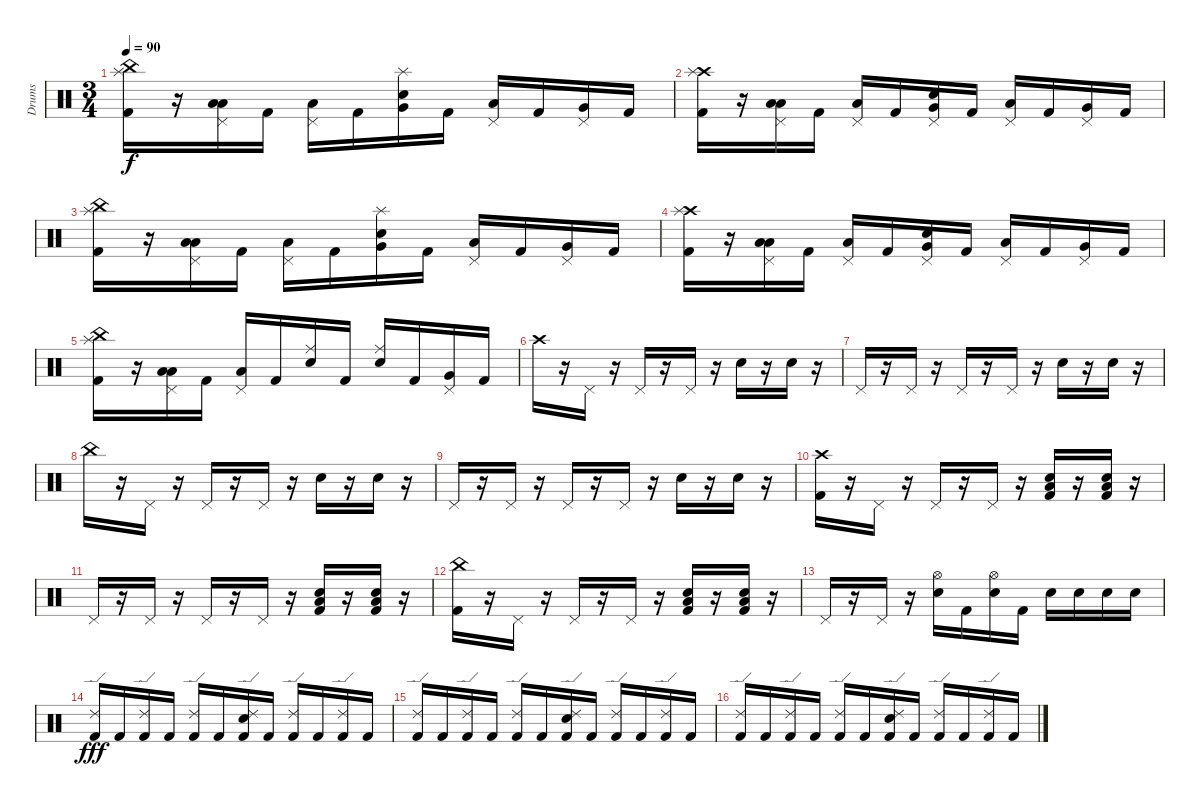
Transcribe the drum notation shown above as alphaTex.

\track ("Drums" "Drums") {instrument percussion}
\staff {score}
\articulation defaults
\ts (3 4)
\tempo 90
\clef neutral
\ks c
("China (hit)" "Splash (hit)" "Kick (hit) 2").16{dy f} r.16 ("Pedal Hi-Hat (hit)" "Low Floor Tom (hit)" "Low Tom (hit)").16 "Kick (hit) 2".16 ("Pedal Hi-Hat (hit)" "Low Floor Tom (hit)").16 "Kick (hit) 2".16 ("Splash (hit)" "Electric Snare (hit)" "Very Low Tom (hit)").16 "Kick (hit) 2".16 ("Pedal Hi-Hat (hit)" "Low Floor Tom (hit)").16 "Kick (hit) 2".16 ("Pedal Hi-Hat (hit)" "Very Low Tom (hit)").16 "Kick (hit) 2".16 |
("Crash high (hit)" "Splash (hit)" "Kick (hit) 2").16 r.16 ("Pedal Hi-Hat (hit)" "Low Floor Tom (hit)" "Low Tom (hit)").16 "Kick (hit) 2".16 ("Pedal Hi-Hat (hit)" "Low Floor Tom (hit)").16 "Kick (hit) 2".16 ("Pedal Hi-Hat (hit)" "Electric Snare (hit)" "Very Low Tom (hit)").16 "Kick (hit) 2".16 ("Pedal Hi-Hat (hit)" "Low Floor Tom (hit)").16 "Kick (hit) 2".16 ("Pedal Hi-Hat (hit)" "Very Low Tom (hit)").16 "Kick (hit) 2".16 |
("China (hit)" "Splash (hit)" "Kick (hit) 2").16 r.16 ("Pedal Hi-Hat (hit)" "Low Floor Tom (hit)" "Low Tom (hit)").16 "Kick (hit) 2".16 ("Pedal Hi-Hat (hit)" "Low Floor Tom (hit)").16 "Kick (hit) 2".16 ("Splash (hit)" "Electric Snare (hit)" "Very Low Tom (hit)").16 "Kick (hit) 2".16 ("Pedal Hi-Hat (hit)" "Low Floor Tom (hit)").16 "Kick (hit) 2".16 ("Pedal Hi-Hat (hit)" "Very Low Tom (hit)").16 "Kick (hit) 2".16 |
("Crash high (hit)" "Splash (hit)" "Kick (hit) 2").16 r.16 ("Pedal Hi-Hat (hit)" "Low Floor Tom (hit)" "Low Tom (hit)").16 "Kick (hit) 2".16 ("Pedal Hi-Hat (hit)" "Low Floor Tom (hit)").16 "Kick (hit) 2".16 ("Pedal Hi-Hat (hit)" "Electric Snare (hit)" "Very Low Tom (hit)").16 "Kick (hit) 2".16 ("Pedal Hi-Hat (hit)" "Low Floor Tom (hit)").16 "Kick (hit) 2".16 ("Pedal Hi-Hat (hit)" "Very Low Tom (hit)").16 "Kick (hit) 2".16 |
("China (hit)" "Splash (hit)" "Kick (hit) 2").16 r.16 ("Pedal Hi-Hat (hit)" "Low Floor Tom (hit)" "Low Tom (hit)").16 "Kick (hit) 2".16 ("Pedal Hi-Hat (hit)" "Low Floor Tom (hit)").16 "Kick (hit) 2".16 ("Ride (middle)" "Electric Snare (hit)").16 "Kick (hit) 2".16 ("Ride (middle)" "Electric Snare (hit)").16 "Kick (hit) 2".16 ("Pedal Hi-Hat (hit)" "Very Low Tom (hit)").16 "Kick (hit) 2".16 |
"Crash high (hit)".16 r.16 "Pedal Hi-Hat (hit)".16 r.16 "Pedal Hi-Hat (hit)".16 r.16 "Pedal Hi-Hat (hit)".16 r.16 "Electric Snare (hit)".16 r.16 "Electric Snare (hit)".16 r.16 |
"Pedal Hi-Hat (hit)".16 r.16 "Pedal Hi-Hat (hit)".16 r.16 "Pedal Hi-Hat (hit)".16 r.16 "Pedal Hi-Hat (hit)".16 r.16 "Electric Snare (hit)".16 r.16 "Electric Snare (hit)".16 r.16 |
"China (hit)".16 r.16 "Pedal Hi-Hat (hit)".16 r.16 "Pedal Hi-Hat (hit)".16 r.16 "Pedal Hi-Hat (hit)".16 r.16 "Electric Snare (hit)".16 r.16 "Electric Snare (hit)".16 r.16 |
"Pedal Hi-Hat (hit)".16 r.16 "Pedal Hi-Hat (hit)".16 r.16 "Pedal Hi-Hat (hit)".16 r.16 "Pedal Hi-Hat (hit)".16 r.16 "Electric Snare (hit)".16 r.16 "Electric Snare (hit)".16 r.16 |
("Crash high (hit)" "Kick (hit) 2").16 r.16 "Pedal Hi-Hat (hit)".16 r.16 "Pedal Hi-Hat (hit)".16 r.16 "Pedal Hi-Hat (hit)".16 r.16 ("Low Floor Tom (hit)" "Electric Snare (hit)" "Kick (hit) 2").16 r.16 ("Low Floor Tom (hit)" "Electric Snare (hit)" "Kick (hit) 2").16 r.16 |
"Pedal Hi-Hat (hit)".16 r.16 "Pedal Hi-Hat (hit)".16 r.16 "Pedal Hi-Hat (hit)".16 r.16 "Pedal Hi-Hat (hit)".16 r.16 ("Low Floor Tom (hit)" "Electric Snare (hit)" "Kick (hit) 2").16 r.16 ("Low Floor Tom (hit)" "Electric Snare (hit)" "Kick (hit) 2").16 r.16 |
("China (hit)" "Kick (hit) 2").16 r.16 "Pedal Hi-Hat (hit)".16 r.16 "Pedal Hi-Hat (hit)".16 r.16 "Pedal Hi-Hat (hit)".16 r.16 ("Low Floor Tom (hit)" "Electric Snare (hit)" "Kick (hit) 2").16 r.16 ("Low Floor Tom (hit)" "Electric Snare (hit)" "Kick (hit) 2").16 r.16 |
"Pedal Hi-Hat (hit)".16 r.16 "Pedal Hi-Hat (hit)".16 r.16 ("Hi-Hat (open)" "Electric Snare (hit)").16 "Kick (hit) 2".16 ("Hi-Hat (open)" "Electric Snare (hit)").16 "Kick (hit) 2".16 "Electric Snare (hit)".16 "Electric Snare (hit)".16 "Electric Snare (hit)".16 "Electric Snare (hit)".16 |
("Kick (hit) 2" "Ride (edge) 2").16{dy fff} "Kick (hit) 2".16 ("Kick (hit) 2" "Ride (edge) 2").16 "Kick (hit) 2".16 ("Kick (hit) 2" "Ride (edge) 2").16 "Kick (hit) 2".16 ("Kick (hit) 2" "Snare (hit) 2" "Ride (edge) 2").16 "Kick (hit) 2".16 ("Kick (hit) 2" "Ride (edge) 2").16 "Kick (hit) 2".16 ("Kick (hit) 2" "Ride (edge) 2").16 "Kick (hit) 2".16 |
("Kick (hit) 2" "Ride (edge) 2").16 "Kick (hit) 2".16 ("Kick (hit) 2" "Ride (edge) 2").16 "Kick (hit) 2".16 ("Kick (hit) 2" "Ride (edge) 2").16 "Kick (hit) 2".16 ("Kick (hit) 2" "Snare (hit) 2" "Ride (edge) 2").16 "Kick (hit) 2".16 ("Kick (hit) 2" "Ride (edge) 2").16 "Kick (hit) 2".16 ("Kick (hit) 2" "Ride (edge) 2").16 "Kick (hit) 2".16 |
("Kick (hit) 2" "Ride (edge) 2").16 "Kick (hit) 2".16 ("Kick (hit) 2" "Ride (edge) 2").16 "Kick (hit) 2".16 ("Kick (hit) 2" "Ride (edge) 2").16 "Kick (hit) 2".16 ("Kick (hit) 2" "Snare (hit) 2" "Ride (edge) 2").16 "Kick (hit) 2".16 ("Kick (hit) 2" "Ride (edge) 2").16 "Kick (hit) 2".16 ("Kick (hit) 2" "Ride (edge) 2").16 "Kick (hit) 2".16
